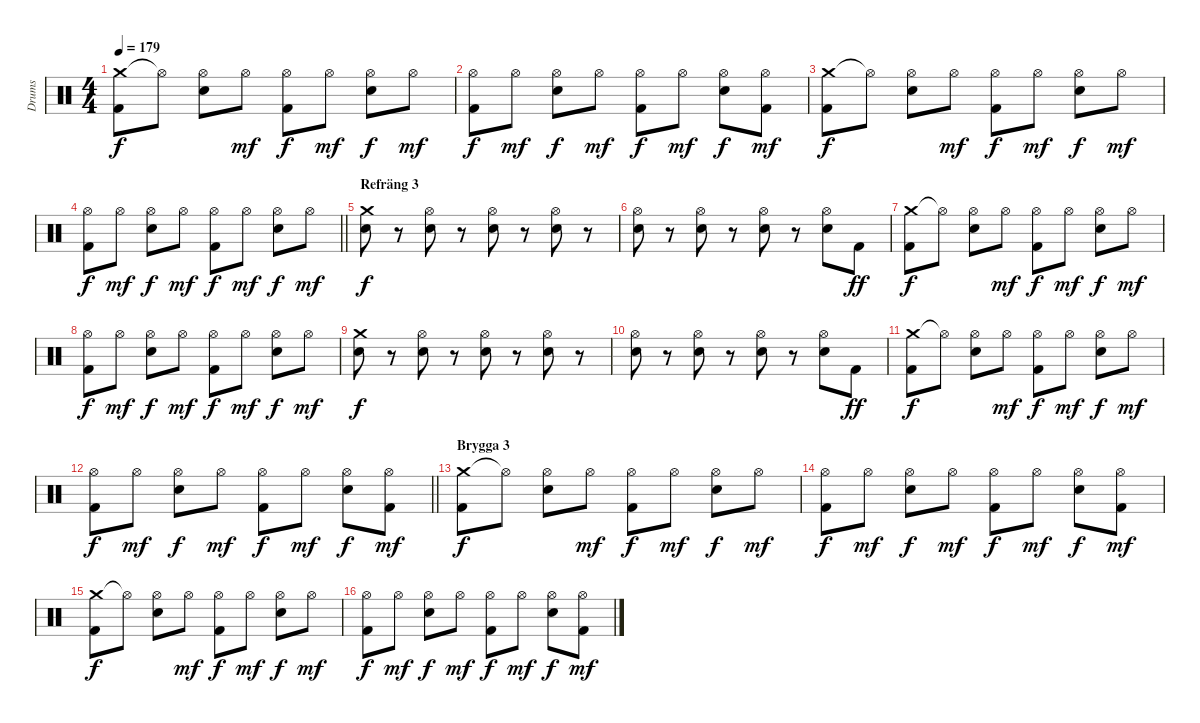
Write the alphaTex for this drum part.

\track ("Drums" "Drums") {instrument percussion}
\staff {score}
\articulation defaults
\ts (4 4)
\tempo 179
\clef neutral
\ks c
("Crash medium (hit)" "Kick (hit) 2").8{dy f} "Hi-Hat (open)"{t}.8 ("Hi-Hat (open)" "Electric Snare (hit)").8 "Hi-Hat (open)".8{dy mf} ("Hi-Hat (open)" "Kick (hit) 2").8{dy f} "Hi-Hat (open)".8{dy mf} ("Hi-Hat (open)" "Electric Snare (hit)").8{dy f} "Hi-Hat (open)".8{dy mf} |
("Hi-Hat (open)" "Kick (hit) 2").8{dy f} "Hi-Hat (open)".8{dy mf} ("Hi-Hat (open)" "Electric Snare (hit)").8{dy f} "Hi-Hat (open)".8{dy mf} ("Hi-Hat (open)" "Kick (hit) 2").8{dy f} "Hi-Hat (open)".8{dy mf} ("Hi-Hat (open)" "Electric Snare (hit)").8{dy f} ("Hi-Hat (open)" "Kick (hit) 2").8{dy mf} |
("Crash medium (hit)" "Kick (hit) 2").8{dy f} "Hi-Hat (open)"{t}.8 ("Hi-Hat (open)" "Electric Snare (hit)").8 "Hi-Hat (open)".8{dy mf} ("Hi-Hat (open)" "Kick (hit) 2").8{dy f} "Hi-Hat (open)".8{dy mf} ("Hi-Hat (open)" "Electric Snare (hit)").8{dy f} "Hi-Hat (open)".8{dy mf} |
\barLineRight lightlight
("Hi-Hat (open)" "Kick (hit) 2").8{dy f} "Hi-Hat (open)".8{dy mf} ("Hi-Hat (open)" "Electric Snare (hit)").8{dy f} "Hi-Hat (open)".8{dy mf} ("Hi-Hat (open)" "Kick (hit) 2").8{dy f} "Hi-Hat (open)".8{dy mf} ("Hi-Hat (open)" "Electric Snare (hit)").8{dy f} "Hi-Hat (open)".8{dy mf} |
\section ("" "Refräng 3")
("Crash medium (hit)" "Electric Snare (hit)").8{dy f} r.8 ("Hi-Hat (open)" "Electric Snare (hit)").8 r.8 ("Hi-Hat (open)" "Electric Snare (hit)").8 r.8 ("Hi-Hat (open)" "Electric Snare (hit)").8 r.8 |
("Hi-Hat (open)" "Electric Snare (hit)").8 r.8 ("Hi-Hat (open)" "Electric Snare (hit)").8 r.8 ("Hi-Hat (open)" "Electric Snare (hit)").8 r.8 ("Hi-Hat (open)" "Electric Snare (hit)").8 "Kick (hit) 2".8{dy ff} |
("Crash medium (hit)" "Kick (hit) 2").8{dy f} "Hi-Hat (open)"{t}.8 ("Hi-Hat (open)" "Electric Snare (hit)").8 "Hi-Hat (open)".8{dy mf} ("Hi-Hat (open)" "Kick (hit) 2").8{dy f} "Hi-Hat (open)".8{dy mf} ("Hi-Hat (open)" "Electric Snare (hit)").8{dy f} "Hi-Hat (open)".8{dy mf} |
("Hi-Hat (open)" "Kick (hit) 2").8{dy f} "Hi-Hat (open)".8{dy mf} ("Hi-Hat (open)" "Electric Snare (hit)").8{dy f} "Hi-Hat (open)".8{dy mf} ("Hi-Hat (open)" "Kick (hit) 2").8{dy f} "Hi-Hat (open)".8{dy mf} ("Hi-Hat (open)" "Electric Snare (hit)").8{dy f} "Hi-Hat (open)".8{dy mf} |
("Crash medium (hit)" "Electric Snare (hit)").8{dy f} r.8 ("Hi-Hat (open)" "Electric Snare (hit)").8 r.8 ("Hi-Hat (open)" "Electric Snare (hit)").8 r.8 ("Hi-Hat (open)" "Electric Snare (hit)").8 r.8 |
("Hi-Hat (open)" "Electric Snare (hit)").8 r.8 ("Hi-Hat (open)" "Electric Snare (hit)").8 r.8 ("Hi-Hat (open)" "Electric Snare (hit)").8 r.8 ("Hi-Hat (open)" "Electric Snare (hit)").8 "Kick (hit) 2".8{dy ff} |
("Crash medium (hit)" "Kick (hit) 2").8{dy f} "Hi-Hat (open)"{t}.8 ("Hi-Hat (open)" "Electric Snare (hit)").8 "Hi-Hat (open)".8{dy mf} ("Hi-Hat (open)" "Kick (hit) 2").8{dy f} "Hi-Hat (open)".8{dy mf} ("Hi-Hat (open)" "Electric Snare (hit)").8{dy f} "Hi-Hat (open)".8{dy mf} |
\barLineRight lightlight
("Hi-Hat (open)" "Kick (hit) 2").8{dy f} "Hi-Hat (open)".8{dy mf} ("Hi-Hat (open)" "Electric Snare (hit)").8{dy f} "Hi-Hat (open)".8{dy mf} ("Hi-Hat (open)" "Kick (hit) 2").8{dy f} "Hi-Hat (open)".8{dy mf} ("Hi-Hat (open)" "Electric Snare (hit)").8{dy f} ("Hi-Hat (open)" "Kick (hit) 2").8{dy mf} |
\section ("" "Brygga 3")
("Crash medium (hit)" "Kick (hit) 2").8{dy f} "Hi-Hat (open)"{t}.8 ("Hi-Hat (open)" "Electric Snare (hit)").8 "Hi-Hat (open)".8{dy mf} ("Hi-Hat (open)" "Kick (hit) 2").8{dy f} "Hi-Hat (open)".8{dy mf} ("Hi-Hat (open)" "Electric Snare (hit)").8{dy f} "Hi-Hat (open)".8{dy mf} |
("Hi-Hat (open)" "Kick (hit) 2").8{dy f} "Hi-Hat (open)".8{dy mf} ("Hi-Hat (open)" "Electric Snare (hit)").8{dy f} "Hi-Hat (open)".8{dy mf} ("Hi-Hat (open)" "Kick (hit) 2").8{dy f} "Hi-Hat (open)".8{dy mf} ("Hi-Hat (open)" "Electric Snare (hit)").8{dy f} ("Hi-Hat (open)" "Kick (hit) 2").8{dy mf} |
("Crash medium (hit)" "Kick (hit) 2").8{dy f} "Hi-Hat (open)"{t}.8 ("Hi-Hat (open)" "Electric Snare (hit)").8 "Hi-Hat (open)".8{dy mf} ("Hi-Hat (open)" "Kick (hit) 2").8{dy f} "Hi-Hat (open)".8{dy mf} ("Hi-Hat (open)" "Electric Snare (hit)").8{dy f} "Hi-Hat (open)".8{dy mf} |
("Hi-Hat (open)" "Kick (hit) 2").8{dy f} "Hi-Hat (open)".8{dy mf} ("Hi-Hat (open)" "Electric Snare (hit)").8{dy f} "Hi-Hat (open)".8{dy mf} ("Hi-Hat (open)" "Kick (hit) 2").8{dy f} "Hi-Hat (open)".8{dy mf} ("Hi-Hat (open)" "Electric Snare (hit)").8{dy f} ("Hi-Hat (open)" "Kick (hit) 2").8{dy mf}
